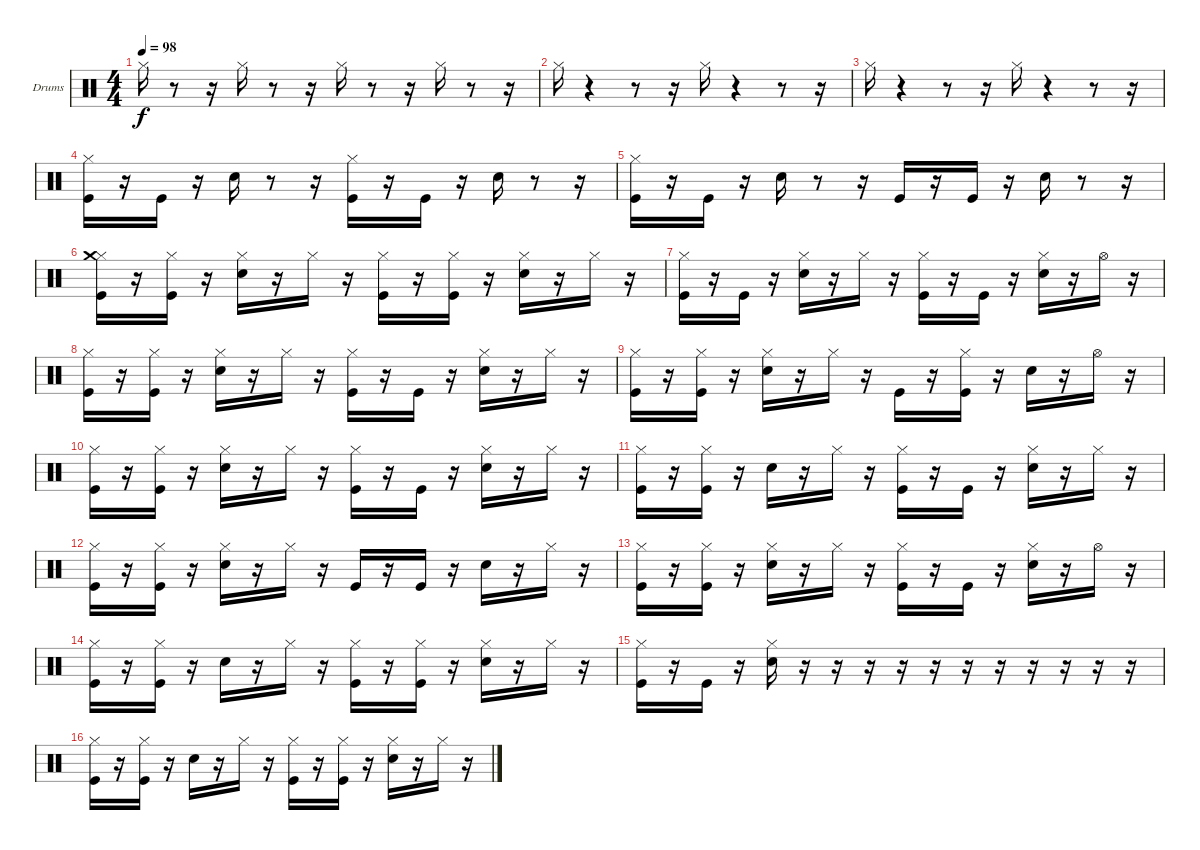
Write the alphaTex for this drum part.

\bracketExtendMode groupsimilarinstruments
\firstSystemTrackNameOrientation horizontal
\otherSystemsTrackNameOrientation horizontal
\track ("Drumkit" "Drums") {instrument percussion}
\staff {score}
\articulation defaults
\ts (4 4)
\tempo 98
\clef neutral
\ks c "Hi-Hat (closed)".16{dy f}
r.8 r.16 "Hi-Hat (closed)".16 r.8 r.16 "Hi-Hat (closed)".16 r.8 r.16 "Hi-Hat (closed)".16 r.8 r.16 |
"Hi-Hat (closed)".16 r.4 r.8 r.16 "Hi-Hat (closed)".16 r.4 r.8 r.16 |
"Hi-Hat (closed)".16 r.4 r.8 r.16 "Hi-Hat (closed)".16 r.4 r.8 r.16 |
("Kick (hit)" "Hi-Hat (closed)").16 r.16 "Kick (hit)".16 r.16 "Snare (hit) 2".16 r.8 r.16 ("Kick (hit)" "Hi-Hat (closed)").16 r.16 "Kick (hit)".16 r.16 "Snare (hit) 2".16 r.8 r.16 |
("Kick (hit)" "Hi-Hat (closed)").16 r.16 "Kick (hit)".16 r.16 "Snare (hit) 2".16 r.8 r.16 "Kick (hit)".16 r.16 "Kick (hit)".16 r.16 "Snare (hit) 2".16 r.8 r.16 |
("Kick (hit)" "Hi-Hat (closed)" "Crash medium (hit)").16 r.16 ("Kick (hit)" "Hi-Hat (closed)").16 r.16 ("Snare (hit) 2" "Hi-Hat (closed)").16 r.16 "Hi-Hat (closed)".16 r.16 ("Kick (hit)" "Hi-Hat (closed)").16 r.16 ("Kick (hit)" "Hi-Hat (closed)").16 r.16 ("Snare (hit) 2" "Hi-Hat (closed)").16 r.16 "Hi-Hat (closed)".16 r.16 |
("Kick (hit)" "Hi-Hat (closed)").16 r.16 "Kick (hit)".16 r.16 ("Snare (hit) 2" "Hi-Hat (closed)").16 r.16 "Hi-Hat (closed)".16 r.16 ("Kick (hit)" "Hi-Hat (closed)").16 r.16 "Kick (hit)".16 r.16 ("Snare (hit) 2" "Hi-Hat (closed)").16 r.16 "Hi-Hat (open)".16 r.16 |
("Kick (hit)" "Hi-Hat (closed)").16 r.16 ("Kick (hit)" "Hi-Hat (closed)").16 r.16 ("Snare (hit) 2" "Hi-Hat (closed)").16 r.16 "Hi-Hat (closed)".16 r.16 ("Kick (hit)" "Hi-Hat (closed)").16 r.16 "Kick (hit)".16 r.16 ("Snare (hit) 2" "Hi-Hat (closed)").16 r.16 "Hi-Hat (closed)".16 r.16 |
("Kick (hit)" "Hi-Hat (closed)").16 r.16 ("Kick (hit)" "Hi-Hat (closed)").16 r.16 ("Snare (hit) 2" "Hi-Hat (closed)").16 r.16 "Hi-Hat (closed)".16 r.16 "Kick (hit)".16 r.16 ("Kick (hit)" "Hi-Hat (closed)").16 r.16 "Snare (hit) 2".16 r.16 "Hi-Hat (open)".16 r.16 |
("Kick (hit)" "Hi-Hat (closed)").16 r.16 ("Kick (hit)" "Hi-Hat (closed)").16 r.16 ("Snare (hit) 2" "Hi-Hat (closed)").16 r.16 "Hi-Hat (closed)".16 r.16 ("Kick (hit)" "Hi-Hat (closed)").16 r.16 "Kick (hit)".16 r.16 ("Snare (hit) 2" "Hi-Hat (closed)").16 r.16 "Hi-Hat (closed)".16 r.16 |
("Kick (hit)" "Hi-Hat (closed)").16 r.16 ("Kick (hit)" "Hi-Hat (closed)").16 r.16 "Snare (hit) 2".16 r.16 "Hi-Hat (closed)".16 r.16 ("Kick (hit)" "Hi-Hat (closed)").16 r.16 "Kick (hit)".16 r.16 ("Snare (hit) 2" "Hi-Hat (closed)").16 r.16 "Hi-Hat (closed)".16 r.16 |
("Kick (hit)" "Hi-Hat (closed)").16 r.16 ("Kick (hit)" "Hi-Hat (closed)").16 r.16 ("Snare (hit) 2" "Hi-Hat (closed)").16 r.16 "Hi-Hat (closed)".16 r.16 "Kick (hit)".16 r.16 "Kick (hit)".16 r.16 "Snare (hit) 2".16 r.16 "Hi-Hat (closed)".16 r.16 |
("Kick (hit)" "Hi-Hat (closed)").16 r.16 ("Kick (hit)" "Hi-Hat (closed)").16 r.16 ("Snare (hit) 2" "Hi-Hat (closed)").16 r.16 "Hi-Hat (closed)".16 r.16 ("Kick (hit)" "Hi-Hat (closed)").16 r.16 "Kick (hit)".16 r.16 ("Snare (hit) 2" "Hi-Hat (closed)").16 r.16 "Hi-Hat (open)".16 r.16 |
("Kick (hit)" "Hi-Hat (closed)").16 r.16 ("Kick (hit)" "Hi-Hat (closed)").16 r.16 "Snare (hit) 2".16 r.16 "Hi-Hat (closed)".16 r.16 ("Kick (hit)" "Hi-Hat (closed)").16 r.16 ("Kick (hit)" "Hi-Hat (closed)").16 r.16 ("Snare (hit) 2" "Hi-Hat (closed)").16 r.16 "Hi-Hat (closed)".16 r.16 |
("Kick (hit)" "Hi-Hat (closed)").16 r.16 "Kick (hit)".16 r.16 ("Snare (hit) 2" "Hi-Hat (closed)").16 r.16 r.16 r.16 r.16 r.16 r.16 r.16 r.16 r.16 r.16 r.16 |
("Kick (hit)" "Hi-Hat (closed)").16 r.16 ("Kick (hit)" "Hi-Hat (closed)").16 r.16 "Snare (hit) 2".16 r.16 "Hi-Hat (closed)".16 r.16 ("Kick (hit)" "Hi-Hat (closed)").16 r.16 ("Kick (hit)" "Hi-Hat (closed)").16 r.16 ("Snare (hit) 2" "Hi-Hat (closed)").16 r.16 "Hi-Hat (closed)".16 r.16
